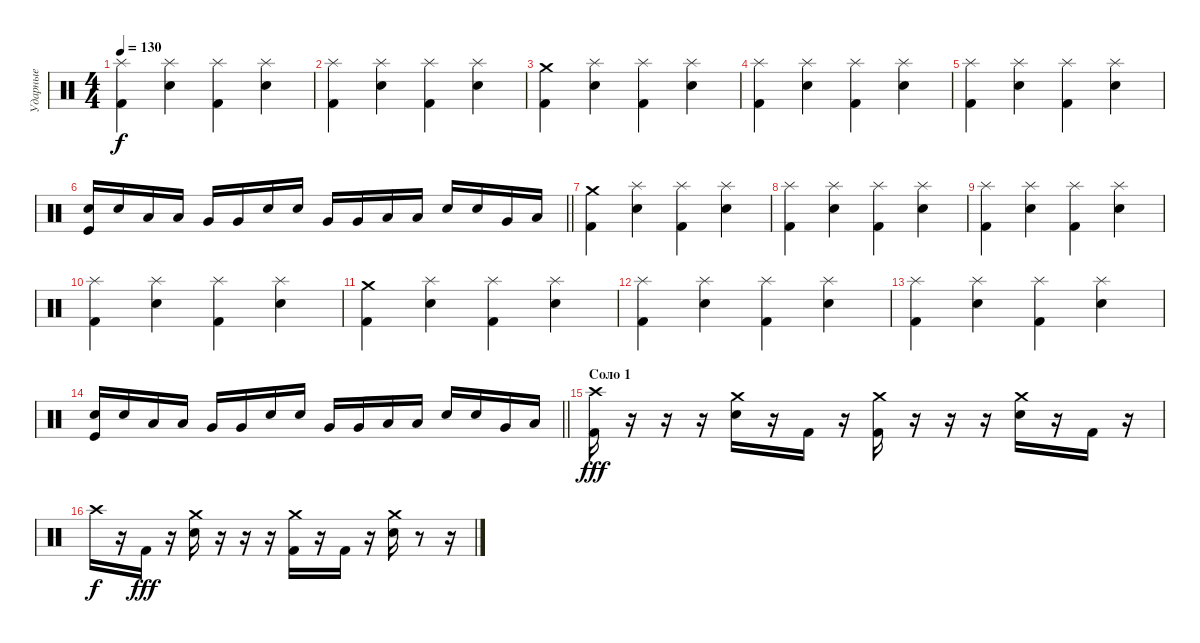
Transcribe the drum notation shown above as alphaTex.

\track ("Ударные" "Ударные") {instrument percussion}
\staff {score}
\articulation defaults
\ts (4 4)
\tempo 130
\clef neutral
\ks c
("Kick (hit) 2" "Splash (hit)").4{dy f} ("Electric Snare (hit)" "Splash (hit)").4 ("Kick (hit) 2" "Splash (hit)").4 ("Electric Snare (hit)" "Splash (hit)").4 |
("Kick (hit) 2" "Splash (hit)").4 ("Electric Snare (hit)" "Splash (hit)").4 ("Kick (hit) 2" "Splash (hit)").4 ("Electric Snare (hit)" "Splash (hit)").4 |
("Kick (hit) 2" "Crash medium (hit)").4 ("Electric Snare (hit)" "Splash (hit)").4 ("Kick (hit) 2" "Splash (hit)").4 ("Electric Snare (hit)" "Splash (hit)").4 |
("Kick (hit) 2" "Splash (hit)").4 ("Electric Snare (hit)" "Splash (hit)").4 ("Kick (hit) 2" "Splash (hit)").4 ("Electric Snare (hit)" "Splash (hit)").4 |
("Kick (hit) 2" "Splash (hit)").4 ("Electric Snare (hit)" "Splash (hit)").4 ("Kick (hit) 2" "Splash (hit)").4 ("Electric Snare (hit)" "Splash (hit)").4 |
\barLineRight lightlight
("Electric Snare (hit)" "Kick (hit)").16 "Electric Snare (hit)".16 "Low Tom (hit)".16 "Low Tom (hit)".16 "Very Low Tom (hit)".16 "Very Low Tom (hit)".16 "Electric Snare (hit)".16 "Electric Snare (hit)".16 "Very Low Tom (hit)".16 "Very Low Tom (hit)".16 "Low Floor Tom (hit)".16 "Low Floor Tom (hit)".16 "Electric Snare (hit)".16 "Electric Snare (hit)".16 "Very Low Tom (hit)".16 "Low Floor Tom (hit)".16 |
("Kick (hit) 2" "Crash medium (hit)").4 ("Electric Snare (hit)" "Splash (hit)").4 ("Kick (hit) 2" "Splash (hit)").4 ("Electric Snare (hit)" "Splash (hit)").4 |
("Kick (hit) 2" "Splash (hit)").4 ("Electric Snare (hit)" "Splash (hit)").4 ("Kick (hit) 2" "Splash (hit)").4 ("Electric Snare (hit)" "Splash (hit)").4 |
("Kick (hit) 2" "Splash (hit)").4 ("Electric Snare (hit)" "Splash (hit)").4 ("Kick (hit) 2" "Splash (hit)").4 ("Electric Snare (hit)" "Splash (hit)").4 |
("Kick (hit) 2" "Splash (hit)").4 ("Electric Snare (hit)" "Splash (hit)").4 ("Kick (hit) 2" "Splash (hit)").4 ("Electric Snare (hit)" "Splash (hit)").4 |
("Kick (hit) 2" "Crash medium (hit)").4 ("Electric Snare (hit)" "Splash (hit)").4 ("Kick (hit) 2" "Splash (hit)").4 ("Electric Snare (hit)" "Splash (hit)").4 |
("Kick (hit) 2" "Splash (hit)").4 ("Electric Snare (hit)" "Splash (hit)").4 ("Kick (hit) 2" "Splash (hit)").4 ("Electric Snare (hit)" "Splash (hit)").4 |
("Kick (hit) 2" "Splash (hit)").4 ("Electric Snare (hit)" "Splash (hit)").4 ("Kick (hit) 2" "Splash (hit)").4 ("Electric Snare (hit)" "Splash (hit)").4 |
\barLineRight lightlight
("Electric Snare (hit)" "Kick (hit)").16 "Electric Snare (hit)".16 "Low Tom (hit)".16 "Low Tom (hit)".16 "Very Low Tom (hit)".16 "Very Low Tom (hit)".16 "Electric Snare (hit)".16 "Electric Snare (hit)".16 "Very Low Tom (hit)".16 "Very Low Tom (hit)".16 "Low Floor Tom (hit)".16 "Low Floor Tom (hit)".16 "Electric Snare (hit)".16 "Electric Snare (hit)".16 "Very Low Tom (hit)".16 "Low Floor Tom (hit)".16 |
\section ("" "Соло 1")
("Crash high (hit)" "Kick (hit) 2").16{dy fff} r.16 r.16 r.16 ("Crash medium (hit)" "Electric Snare (hit)").16 r.16 "Kick (hit) 2".16 r.16 ("Crash medium (hit)" "Kick (hit) 2").16 r.16 r.16 r.16 ("Crash medium (hit)" "Electric Snare (hit)").16 r.16 "Kick (hit) 2".16 r.16 |
"Crash high (hit)".16{dy f} r.16 "Kick (hit) 2".16{dy fff} r.16 ("Crash medium (hit)" "Electric Snare (hit)").16 r.16 r.16 r.16 ("Crash medium (hit)" "Kick (hit) 2").16 r.16 "Kick (hit) 2".16 r.16 ("Crash medium (hit)" "Electric Snare (hit)").16 r.8 r.16
